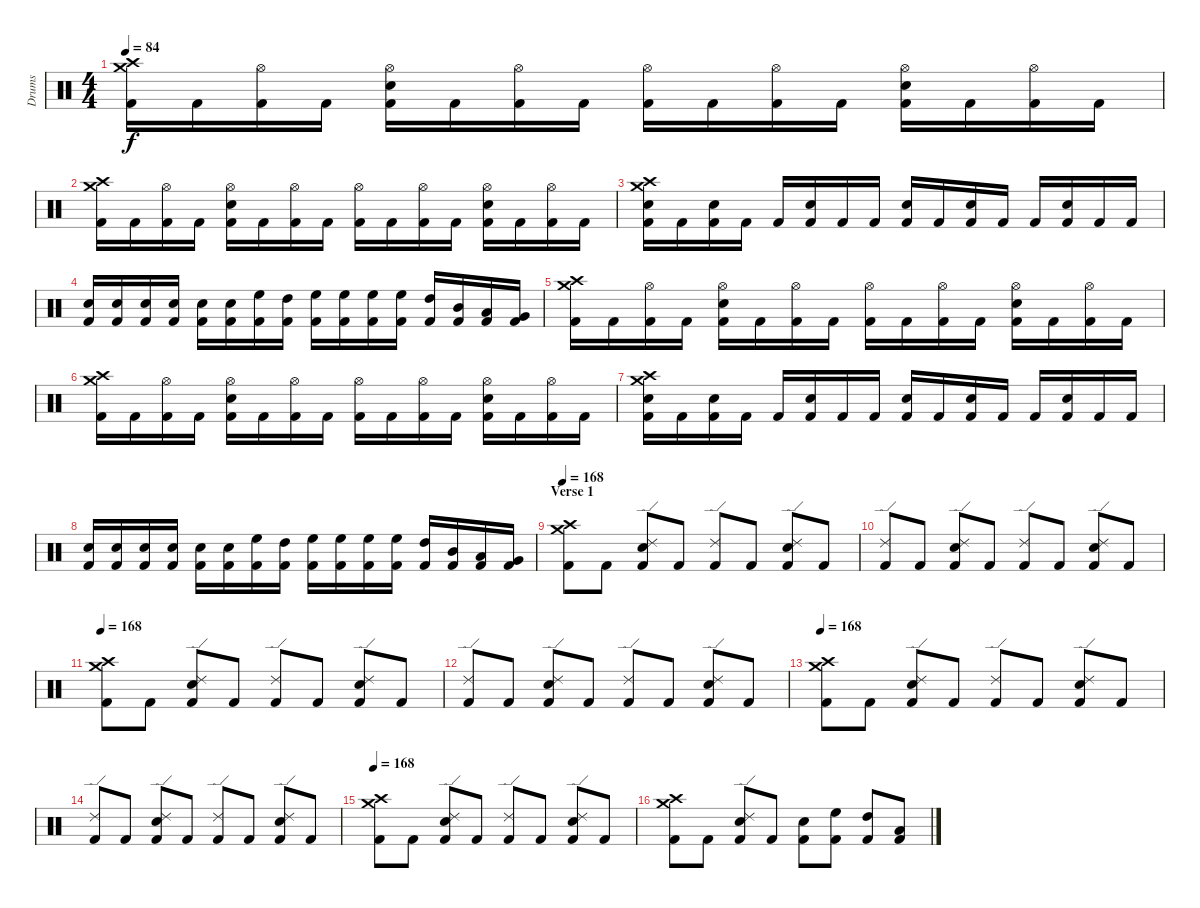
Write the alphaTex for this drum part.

\track ("Drums" "Drums") {instrument percussion}
\staff {score}
\articulation defaults
\ts (4 4)
\tempo 84
\clef neutral
\ks c
("Crash high (hit)" "Crash medium (hit)" "Kick (hit) 2").16{dy f} "Kick (hit) 2".16 ("Hi-Hat (open)" "Kick (hit) 2").16 "Kick (hit) 2".16 ("Hi-Hat (open)" "Snare (hit) 2" "Kick (hit) 2").16 "Kick (hit) 2".16 ("Hi-Hat (open)" "Kick (hit) 2").16 "Kick (hit) 2".16 ("Hi-Hat (open)" "Kick (hit) 2").16 "Kick (hit) 2".16 ("Hi-Hat (open)" "Kick (hit) 2").16 "Kick (hit) 2".16 ("Hi-Hat (open)" "Snare (hit) 2" "Kick (hit) 2").16 "Kick (hit) 2".16 ("Hi-Hat (open)" "Kick (hit) 2").16 "Kick (hit) 2".16 |
("Crash high (hit)" "Crash medium (hit)" "Kick (hit) 2").16 "Kick (hit) 2".16 ("Hi-Hat (open)" "Kick (hit) 2").16 "Kick (hit) 2".16 ("Hi-Hat (open)" "Snare (hit) 2" "Kick (hit) 2").16 "Kick (hit) 2".16 ("Hi-Hat (open)" "Kick (hit) 2").16 "Kick (hit) 2".16 ("Hi-Hat (open)" "Kick (hit) 2").16 "Kick (hit) 2".16 ("Hi-Hat (open)" "Kick (hit) 2").16 "Kick (hit) 2".16 ("Hi-Hat (open)" "Snare (hit) 2" "Kick (hit) 2").16 "Kick (hit) 2".16 ("Hi-Hat (open)" "Kick (hit) 2").16 "Kick (hit) 2".16 |
("Crash high (hit)" "Crash medium (hit)" "Snare (hit) 2" "Kick (hit) 2").16 "Kick (hit) 2".16 ("Snare (hit) 2" "Kick (hit) 2").16 "Kick (hit) 2".16 "Kick (hit) 2".16 ("Snare (hit) 2" "Kick (hit) 2").16 "Kick (hit) 2".16 "Kick (hit) 2".16 ("Snare (hit) 2" "Kick (hit) 2").16 "Kick (hit) 2".16 ("Snare (hit) 2" "Kick (hit) 2").16 "Kick (hit) 2".16 "Kick (hit) 2".16 ("Snare (hit) 2" "Kick (hit) 2").16 "Kick (hit) 2".16 "Kick (hit) 2".16 |
("Snare (hit) 2" "Kick (hit) 2").16 ("Snare (hit) 2" "Kick (hit) 2").16 ("Snare (hit) 2" "Kick (hit) 2").16 ("Snare (hit) 2" "Kick (hit) 2").16 ("Snare (hit) 2" "Kick (hit) 2").16 ("Snare (hit) 2" "Kick (hit) 2").16 ("High Floor Tom (hit)" "Kick (hit) 2").16 ("High Tom (hit)" "Kick (hit) 2").16 ("High Floor Tom (hit)" "Kick (hit) 2").16 ("High Floor Tom (hit)" "Kick (hit) 2").16 ("High Floor Tom (hit)" "Kick (hit) 2").16 ("High Floor Tom (hit)" "Kick (hit) 2").16 ("High Tom (hit)" "Kick (hit) 2").16 ("Mid Tom (hit)" "Kick (hit) 2").16 ("Low Tom (hit)" "Kick (hit) 2").16 ("Very Low Tom (hit)" "Kick (hit) 2").16 |
("Crash high (hit)" "Crash medium (hit)" "Kick (hit) 2").16 "Kick (hit) 2".16 ("Hi-Hat (open)" "Kick (hit) 2").16 "Kick (hit) 2".16 ("Hi-Hat (open)" "Snare (hit) 2" "Kick (hit) 2").16 "Kick (hit) 2".16 ("Hi-Hat (open)" "Kick (hit) 2").16 "Kick (hit) 2".16 ("Hi-Hat (open)" "Kick (hit) 2").16 "Kick (hit) 2".16 ("Hi-Hat (open)" "Kick (hit) 2").16 "Kick (hit) 2".16 ("Hi-Hat (open)" "Snare (hit) 2" "Kick (hit) 2").16 "Kick (hit) 2".16 ("Hi-Hat (open)" "Kick (hit) 2").16 "Kick (hit) 2".16 |
("Crash high (hit)" "Crash medium (hit)" "Kick (hit) 2").16 "Kick (hit) 2".16 ("Hi-Hat (open)" "Kick (hit) 2").16 "Kick (hit) 2".16 ("Hi-Hat (open)" "Snare (hit) 2" "Kick (hit) 2").16 "Kick (hit) 2".16 ("Hi-Hat (open)" "Kick (hit) 2").16 "Kick (hit) 2".16 ("Hi-Hat (open)" "Kick (hit) 2").16 "Kick (hit) 2".16 ("Hi-Hat (open)" "Kick (hit) 2").16 "Kick (hit) 2".16 ("Hi-Hat (open)" "Snare (hit) 2" "Kick (hit) 2").16 "Kick (hit) 2".16 ("Hi-Hat (open)" "Kick (hit) 2").16 "Kick (hit) 2".16 |
("Crash high (hit)" "Crash medium (hit)" "Snare (hit) 2" "Kick (hit) 2").16 "Kick (hit) 2".16 ("Snare (hit) 2" "Kick (hit) 2").16 "Kick (hit) 2".16 "Kick (hit) 2".16 ("Snare (hit) 2" "Kick (hit) 2").16 "Kick (hit) 2".16 "Kick (hit) 2".16 ("Snare (hit) 2" "Kick (hit) 2").16 "Kick (hit) 2".16 ("Snare (hit) 2" "Kick (hit) 2").16 "Kick (hit) 2".16 "Kick (hit) 2".16 ("Snare (hit) 2" "Kick (hit) 2").16 "Kick (hit) 2".16 "Kick (hit) 2".16 |
("Snare (hit) 2" "Kick (hit) 2").16 ("Snare (hit) 2" "Kick (hit) 2").16 ("Snare (hit) 2" "Kick (hit) 2").16 ("Snare (hit) 2" "Kick (hit) 2").16 ("Snare (hit) 2" "Kick (hit) 2").16 ("Snare (hit) 2" "Kick (hit) 2").16 ("High Floor Tom (hit)" "Kick (hit) 2").16 ("High Tom (hit)" "Kick (hit) 2").16 ("High Floor Tom (hit)" "Kick (hit) 2").16 ("High Floor Tom (hit)" "Kick (hit) 2").16 ("High Floor Tom (hit)" "Kick (hit) 2").16 ("High Floor Tom (hit)" "Kick (hit) 2").16 ("High Tom (hit)" "Kick (hit) 2").16 ("Mid Tom (hit)" "Kick (hit) 2").16 ("Low Tom (hit)" "Kick (hit) 2").16 ("Very Low Tom (hit)" "Kick (hit) 2").16 |
\section ("" "Verse 1")
\tempo 168
("Crash medium (hit)" "Crash high (hit)" "Kick (hit) 2").8 "Kick (hit) 2".8 ("Ride (edge) 2" "Snare (hit) 2" "Kick (hit) 2").8 "Kick (hit) 2".8 ("Ride (edge) 2" "Kick (hit) 2").8 "Kick (hit) 2".8 ("Ride (edge) 2" "Snare (hit) 2" "Kick (hit) 2").8 "Kick (hit) 2".8 |
("Ride (edge) 2" "Kick (hit) 2").8 "Kick (hit) 2".8 ("Ride (edge) 2" "Snare (hit) 2" "Kick (hit) 2").8 "Kick (hit) 2".8 ("Ride (edge) 2" "Kick (hit) 2").8 "Kick (hit) 2".8 ("Ride (edge) 2" "Snare (hit) 2" "Kick (hit) 2").8 "Kick (hit) 2".8 |
\tempo 168
("Crash medium (hit)" "Crash high (hit)" "Kick (hit) 2").8 "Kick (hit) 2".8 ("Ride (edge) 2" "Snare (hit) 2" "Kick (hit) 2").8 "Kick (hit) 2".8 ("Ride (edge) 2" "Kick (hit) 2").8 "Kick (hit) 2".8 ("Ride (edge) 2" "Snare (hit) 2" "Kick (hit) 2").8 "Kick (hit) 2".8 |
("Ride (edge) 2" "Kick (hit) 2").8 "Kick (hit) 2".8 ("Ride (edge) 2" "Snare (hit) 2" "Kick (hit) 2").8 "Kick (hit) 2".8 ("Ride (edge) 2" "Kick (hit) 2").8 "Kick (hit) 2".8 ("Ride (edge) 2" "Snare (hit) 2" "Kick (hit) 2").8 "Kick (hit) 2".8 |
\tempo 168
("Crash medium (hit)" "Crash high (hit)" "Kick (hit) 2").8 "Kick (hit) 2".8 ("Ride (edge) 2" "Snare (hit) 2" "Kick (hit) 2").8 "Kick (hit) 2".8 ("Ride (edge) 2" "Kick (hit) 2").8 "Kick (hit) 2".8 ("Ride (edge) 2" "Snare (hit) 2" "Kick (hit) 2").8 "Kick (hit) 2".8 |
("Ride (edge) 2" "Kick (hit) 2").8 "Kick (hit) 2".8 ("Ride (edge) 2" "Snare (hit) 2" "Kick (hit) 2").8 "Kick (hit) 2".8 ("Ride (edge) 2" "Kick (hit) 2").8 "Kick (hit) 2".8 ("Ride (edge) 2" "Snare (hit) 2" "Kick (hit) 2").8 "Kick (hit) 2".8 |
\tempo 168
("Crash medium (hit)" "Crash high (hit)" "Kick (hit) 2").8 "Kick (hit) 2".8 ("Ride (edge) 2" "Snare (hit) 2" "Kick (hit) 2").8 "Kick (hit) 2".8 ("Ride (edge) 2" "Kick (hit) 2").8 "Kick (hit) 2".8 ("Ride (edge) 2" "Snare (hit) 2" "Kick (hit) 2").8 "Kick (hit) 2".8 |
("Crash medium (hit)" "Crash high (hit)" "Kick (hit) 2").8 "Kick (hit) 2".8 ("Ride (edge) 2" "Snare (hit) 2" "Kick (hit) 2").8 "Kick (hit) 2".8 ("Snare (hit) 2" "Kick (hit) 2").8 ("High Floor Tom (hit)" "Kick (hit) 2").8 ("High Tom (hit)" "Kick (hit) 2").8 ("Low Tom (hit)" "Kick (hit) 2").8
